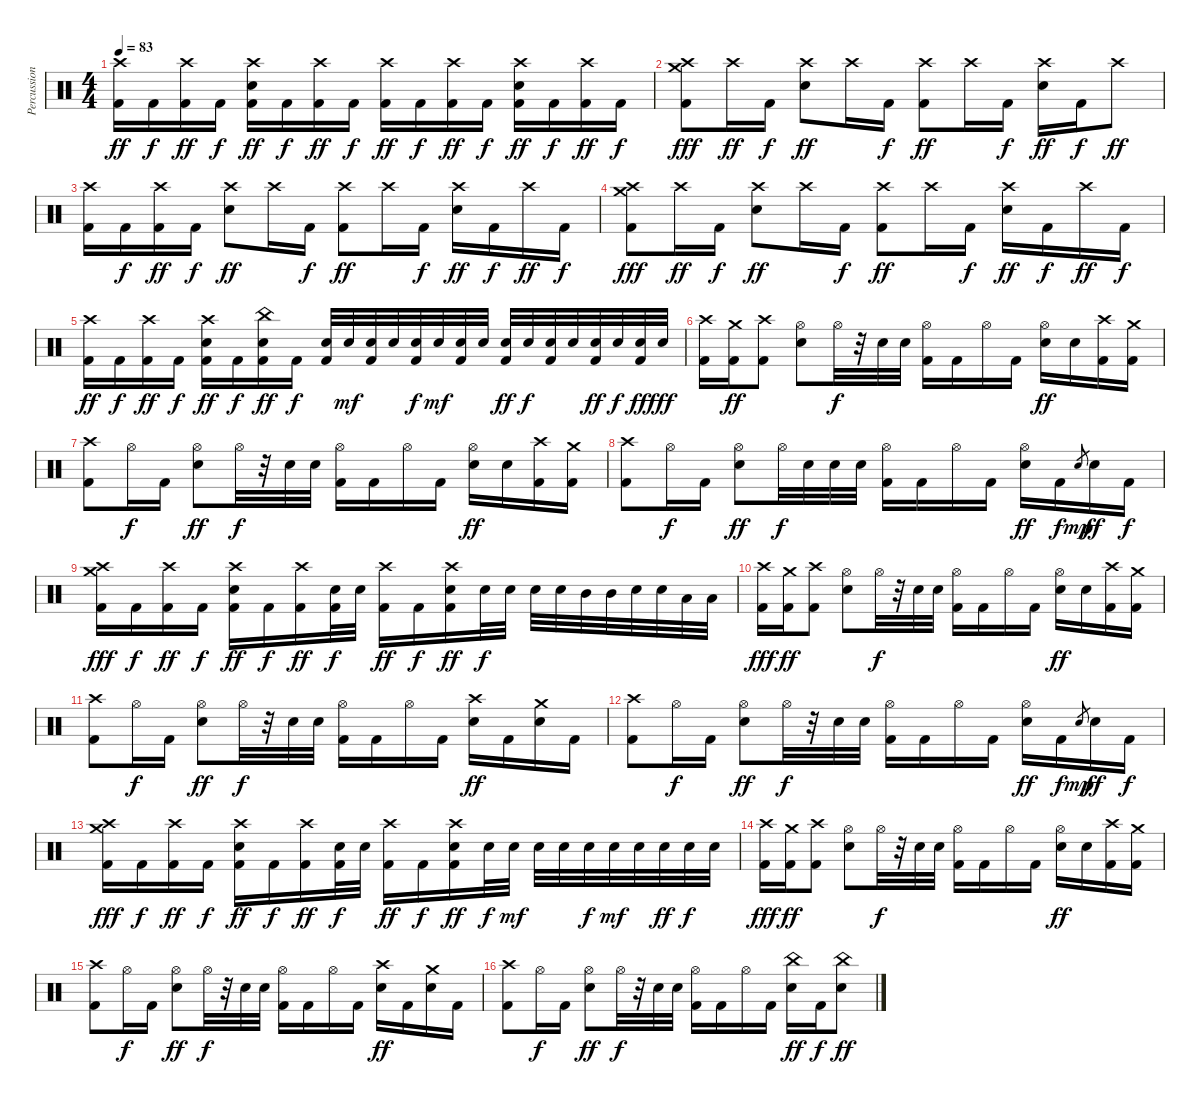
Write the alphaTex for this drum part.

\track ("Percussions" "Percussion") {instrument percussion}
\staff {score}
\articulation defaults
\ts (4 4)
\tempo 83
\clef neutral
\ks c
("Crash high (hit)" "Kick (hit) 2").16{dy ff} "Kick (hit) 2".16{dy f} ("Crash high (hit)" "Kick (hit) 2").16{dy ff} "Kick (hit) 2".16{dy f} ("Crash high (hit)" "Electric Snare (hit)" "Kick (hit) 2").16{dy ff} "Kick (hit) 2".16{dy f} ("Crash high (hit)" "Kick (hit) 2").16{dy ff} "Kick (hit) 2".16{dy f} ("Crash high (hit)" "Kick (hit) 2").16{dy ff} "Kick (hit) 2".16{dy f} ("Crash high (hit)" "Kick (hit) 2").16{dy ff} "Kick (hit) 2".16{dy f} ("Crash high (hit)" "Electric Snare (hit)" "Kick (hit) 2").16{dy ff} "Kick (hit) 2".16{dy f} ("Crash high (hit)" "Kick (hit) 2").16{dy ff} "Kick (hit) 2".16{dy f} |
("Crash medium (hit)" "Crash high (hit)" "Kick (hit) 2").8{dy fff} "Crash high (hit)".16{dy ff} "Kick (hit) 2".16{dy f} ("Crash high (hit)" "Electric Snare (hit)").8{dy ff} "Crash high (hit)".16 "Kick (hit) 2".16{dy f} ("Crash high (hit)" "Kick (hit) 2").8{dy ff} "Crash high (hit)".16 "Kick (hit) 2".16{dy f} ("Crash high (hit)" "Electric Snare (hit)").16{dy ff} "Kick (hit) 2".16{dy f} "Crash high (hit)".8{dy ff} |
("Crash high (hit)" "Kick (hit) 2").16 "Kick (hit) 2".16{dy f} ("Crash high (hit)" "Kick (hit) 2").16{dy ff} "Kick (hit) 2".16{dy f} ("Crash high (hit)" "Electric Snare (hit)").8{dy ff} "Crash high (hit)".16 "Kick (hit) 2".16{dy f} ("Crash high (hit)" "Kick (hit) 2").8{dy ff} "Crash high (hit)".16 "Kick (hit) 2".16{dy f} ("Crash high (hit)" "Electric Snare (hit)").16{dy ff} "Kick (hit) 2".16{dy f} "Crash high (hit)".16{dy ff} "Kick (hit) 2".16{dy f} |
("Crash medium (hit)" "Crash high (hit)" "Kick (hit) 2").8{dy fff} "Crash high (hit)".16{dy ff} "Kick (hit) 2".16{dy f} ("Crash high (hit)" "Electric Snare (hit)").8{dy ff} "Crash high (hit)".16 "Kick (hit) 2".16{dy f} ("Crash high (hit)" "Kick (hit) 2").8{dy ff} "Crash high (hit)".16 "Kick (hit) 2".16{dy f} ("Crash high (hit)" "Electric Snare (hit)").16{dy ff} "Kick (hit) 2".16{dy f} "Crash high (hit)".16{dy ff} "Kick (hit) 2".16{dy f} |
("Crash high (hit)" "Kick (hit) 2").16{dy ff} "Kick (hit) 2".16{dy f} ("Crash high (hit)" "Kick (hit) 2").16{dy ff} "Kick (hit) 2".16{dy f} ("Crash high (hit)" "Electric Snare (hit)" "Kick (hit) 2").16{dy ff} "Kick (hit) 2".16{dy f} ("China (hit)" "Electric Snare (hit)" "Kick (hit) 2").16{dy ff} "Kick (hit) 2".16{dy f} ("Electric Snare (hit)" "Kick (hit) 2").32 "Electric Snare (hit)".32{dy mf} ("Electric Snare (hit)" "Kick (hit) 2").32 "Electric Snare (hit)".32 ("Electric Snare (hit)" "Kick (hit) 2").32{dy f} "Electric Snare (hit)".32{dy mf} ("Electric Snare (hit)" "Kick (hit) 2").32 "Electric Snare (hit)".32 ("Electric Snare (hit)" "Kick (hit) 2").32{dy ff} "Electric Snare (hit)".32{dy f} ("Electric Snare (hit)" "Kick (hit) 2").32 "Electric Snare (hit)".32 ("Electric Snare (hit)" "Kick (hit) 2").32{dy ff} "Electric Snare (hit)".32{dy f} ("Electric Snare (hit)" "Kick (hit) 2").32{dy ff} "Electric Snare (hit)".32{dy fff} |
("Crash high (hit)" "Kick (hit) 2").16 ("Crash medium (hit)" "Kick (hit) 2").16{dy ff} ("Crash high (hit)" "Kick (hit) 2").8 ("Hi-Hat (open)" "Electric Snare (hit)").8 "Hi-Hat (open)".32{dy f} r.32 "Electric Snare (hit)".32 "Electric Snare (hit)".32 ("Hi-Hat (open)" "Kick (hit) 2").16 "Kick (hit) 2".16 "Hi-Hat (open)".16 "Kick (hit) 2".16 ("Hi-Hat (open)" "Electric Snare (hit)").16{dy ff} "Electric Snare (hit)".16 ("Crash high (hit)" "Kick (hit) 2").16 ("Crash medium (hit)" "Kick (hit) 2").16 |
("Crash high (hit)" "Kick (hit) 2").8 "Hi-Hat (open)".16{dy f} "Kick (hit) 2".16 ("Hi-Hat (open)" "Electric Snare (hit)").8{dy ff} "Hi-Hat (open)".32{dy f} r.32 "Electric Snare (hit)".32 "Electric Snare (hit)".32 ("Hi-Hat (open)" "Kick (hit) 2").16 "Kick (hit) 2".16 "Hi-Hat (open)".16 "Kick (hit) 2".16 ("Hi-Hat (open)" "Electric Snare (hit)").16{dy ff} "Electric Snare (hit)".16 ("Crash high (hit)" "Kick (hit) 2").16 ("Crash medium (hit)" "Kick (hit) 2").16 |
("Crash high (hit)" "Kick (hit) 2").8 "Hi-Hat (open)".16{dy f} "Kick (hit) 2".16 ("Hi-Hat (open)" "Electric Snare (hit)").8{dy ff} "Hi-Hat (open)".32{dy f} "Electric Snare (hit)".32 "Electric Snare (hit)".32 "Electric Snare (hit)".32 ("Hi-Hat (open)" "Kick (hit) 2").16 "Kick (hit) 2".16 "Hi-Hat (open)".16 "Kick (hit) 2".16 ("Hi-Hat (open)" "Electric Snare (hit)").16{dy ff} "Kick (hit) 2".16{dy f} "Electric Snare (hit)".8{gr dy mp} "Electric Snare (hit)".16{dy ff} "Kick (hit) 2".16{dy f} |
("Crash high (hit)" "Crash medium (hit)" "Kick (hit) 2").16{dy fff} "Kick (hit) 2".16{dy f} ("Crash high (hit)" "Kick (hit) 2").16{dy ff} "Kick (hit) 2".16{dy f} ("Crash high (hit)" "Electric Snare (hit)" "Kick (hit) 2").16{dy ff} "Kick (hit) 2".16{dy f} ("Crash high (hit)" "Kick (hit) 2").16{dy ff} ("Electric Snare (hit)" "Kick (hit) 2").32{dy f} "Electric Snare (hit)".32 ("Crash high (hit)" "Kick (hit) 2").16{dy ff} "Kick (hit) 2".16{dy f} ("Crash high (hit)" "Electric Snare (hit)" "Kick (hit) 2").16{dy ff} "Electric Snare (hit)".32{dy f} "Electric Snare (hit)".32 "Electric Snare (hit)".32 "Electric Snare (hit)".32 "Mid Tom (hit)".32 "Mid Tom (hit)".32 "Electric Snare (hit)".32 "Electric Snare (hit)".32 "Low Tom (hit)".32 "Low Tom (hit)".32 |
("Crash high (hit)" "Kick (hit) 2").16{dy fff} ("Crash medium (hit)" "Kick (hit) 2").16{dy ff} ("Crash high (hit)" "Kick (hit) 2").8 ("Hi-Hat (open)" "Electric Snare (hit)").8 "Hi-Hat (open)".32{dy f} r.32 "Electric Snare (hit)".32 "Electric Snare (hit)".32 ("Hi-Hat (open)" "Kick (hit) 2").16 "Kick (hit) 2".16 "Hi-Hat (open)".16 "Kick (hit) 2".16 ("Hi-Hat (open)" "Electric Snare (hit)").16{dy ff} "Electric Snare (hit)".16 ("Crash high (hit)" "Kick (hit) 2").16 ("Crash medium (hit)" "Kick (hit) 2").16 |
("Crash high (hit)" "Kick (hit) 2").8 "Hi-Hat (open)".16{dy f} "Kick (hit) 2".16 ("Hi-Hat (open)" "Electric Snare (hit)").8{dy ff} "Hi-Hat (open)".32{dy f} r.32 "Electric Snare (hit)".32 "Electric Snare (hit)".32 ("Hi-Hat (open)" "Kick (hit) 2").16 "Kick (hit) 2".16 "Hi-Hat (open)".16 "Kick (hit) 2".16 ("Crash high (hit)" "Electric Snare (hit)").16{dy ff} "Kick (hit) 2".16 ("Crash medium (hit)" "Electric Snare (hit)").16 "Kick (hit) 2".16 |
("Crash high (hit)" "Kick (hit) 2").8 "Hi-Hat (open)".16{dy f} "Kick (hit) 2".16 ("Hi-Hat (open)" "Electric Snare (hit)").8{dy ff} "Hi-Hat (open)".32{dy f} r.32 "Electric Snare (hit)".32 "Electric Snare (hit)".32 ("Hi-Hat (open)" "Kick (hit) 2").16 "Kick (hit) 2".16 "Hi-Hat (open)".16 "Kick (hit) 2".16 ("Hi-Hat (open)" "Electric Snare (hit)").16{dy ff} "Kick (hit) 2".16{dy f} "Electric Snare (hit)".8{gr dy mp} "Electric Snare (hit)".16{dy ff} "Kick (hit) 2".16{dy f} |
("Crash high (hit)" "Crash medium (hit)" "Kick (hit) 2").16{dy fff} "Kick (hit) 2".16{dy f} ("Crash high (hit)" "Kick (hit) 2").16{dy ff} "Kick (hit) 2".16{dy f} ("Crash high (hit)" "Electric Snare (hit)" "Kick (hit) 2").16{dy ff} "Kick (hit) 2".16{dy f} ("Crash high (hit)" "Kick (hit) 2").16{dy ff} ("Electric Snare (hit)" "Kick (hit) 2").32{dy f} "Electric Snare (hit)".32 ("Crash high (hit)" "Kick (hit) 2").16{dy ff} "Kick (hit) 2".16{dy f} ("Crash high (hit)" "Electric Snare (hit)" "Kick (hit) 2").16{dy ff} "Electric Snare (hit)".32{dy f} "Electric Snare (hit)".32{dy mf} "Electric Snare (hit)".32 "Electric Snare (hit)".32 "Electric Snare (hit)".32{dy f} "Electric Snare (hit)".32{dy mf} "Electric Snare (hit)".32 "Electric Snare (hit)".32{dy ff} "Electric Snare (hit)".32{dy f} "Electric Snare (hit)".32 |
("Crash high (hit)" "Kick (hit) 2").16{dy fff} ("Crash medium (hit)" "Kick (hit) 2").16{dy ff} ("Crash high (hit)" "Kick (hit) 2").8 ("Hi-Hat (open)" "Electric Snare (hit)").8 "Hi-Hat (open)".32{dy f} r.32 "Electric Snare (hit)".32 "Electric Snare (hit)".32 ("Hi-Hat (open)" "Kick (hit) 2").16 "Kick (hit) 2".16 "Hi-Hat (open)".16 "Kick (hit) 2".16 ("Hi-Hat (open)" "Electric Snare (hit)").16{dy ff} "Electric Snare (hit)".16 ("Crash high (hit)" "Kick (hit) 2").16 ("Crash medium (hit)" "Kick (hit) 2").16 |
("Crash high (hit)" "Kick (hit) 2").8 "Hi-Hat (open)".16{dy f} "Kick (hit) 2".16 ("Hi-Hat (open)" "Electric Snare (hit)").8{dy ff} "Hi-Hat (open)".32{dy f} r.32 "Electric Snare (hit)".32 "Electric Snare (hit)".32 ("Hi-Hat (open)" "Kick (hit) 2").16 "Kick (hit) 2".16 "Hi-Hat (open)".16 "Kick (hit) 2".16 ("Crash high (hit)" "Electric Snare (hit)").16{dy ff} "Kick (hit) 2".16 ("Crash medium (hit)" "Electric Snare (hit)").16 "Kick (hit) 2".16 |
("Crash high (hit)" "Kick (hit) 2").8 "Hi-Hat (open)".16{dy f} "Kick (hit) 2".16 ("Hi-Hat (open)" "Electric Snare (hit)").8{dy ff} "Hi-Hat (open)".32{dy f} r.32 "Electric Snare (hit)".32 "Electric Snare (hit)".32 ("Hi-Hat (open)" "Kick (hit) 2").16 "Kick (hit) 2".16 "Hi-Hat (open)".16 "Kick (hit) 2".16 ("China (hit)" "Electric Snare (hit)").16{dy ff} "Kick (hit) 2".16{dy f} ("China (hit)" "Electric Snare (hit)").8{dy ff}
